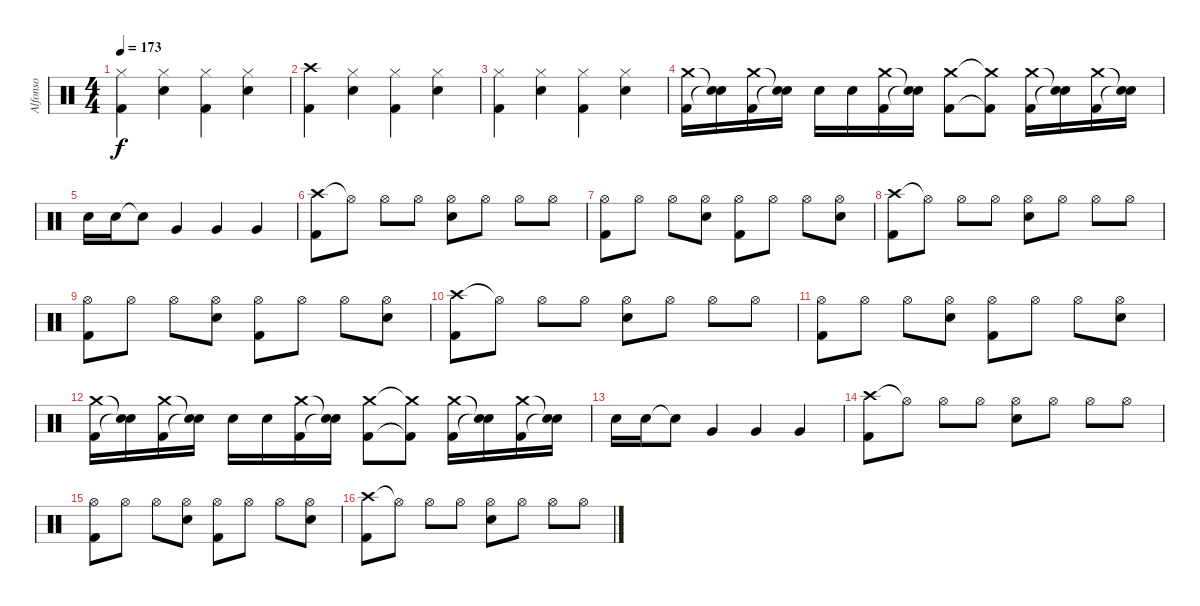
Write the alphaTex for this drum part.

\track ("Alfonso" "Alfonso") {instrument percussion}
\staff {score}
\articulation defaults
\ts (4 4)
\tempo 173
\clef neutral
\ks c
("Kick (hit) 2" "Hi-Hat (closed)").4{dy f} ("Electric Snare (hit)" "Hi-Hat (closed)").4 ("Kick (hit) 2" "Hi-Hat (closed)").4 ("Electric Snare (hit)" "Hi-Hat (closed)").4 |
("Kick (hit) 2" "Crash high (hit)").4 ("Electric Snare (hit)" "Hi-Hat (closed)").4 ("Kick (hit) 2" "Hi-Hat (closed)").4 ("Electric Snare (hit)" "Hi-Hat (closed)").4 |
("Kick (hit) 2" "Hi-Hat (closed)").4 ("Electric Snare (hit)" "Hi-Hat (closed)").4 ("Kick (hit) 2" "Hi-Hat (closed)").4 ("Electric Snare (hit)" "Hi-Hat (closed)").4 |
("Crash medium (hit)" "Kick (hit) 2").16 ("Snare (hit)"{t} "Snare (hit)"{t}).16 ("Crash medium (hit)" "Kick (hit) 2").16 ("Snare (hit)"{t} "Snare (hit)"{t}).16 "Electric Snare (hit)".16 "Electric Snare (hit)".16 ("Crash medium (hit)" "Kick (hit) 2").16 ("Snare (hit)"{t} "Snare (hit)"{t}).16 ("Crash medium (hit)" "Kick (hit) 2").8 ("Crash medium (hit)"{t} "Kick (hit) 2"{t}).8 ("Crash medium (hit)" "Kick (hit) 2").16 ("Snare (hit)"{t} "Snare (hit)"{t}).16 ("Crash medium (hit)" "Kick (hit) 2").16 ("Snare (hit)"{t} "Snare (hit)"{t}).16 |
"Electric Snare (hit)".16 "Electric Snare (hit)".16 "Snare (hit)"{t}.8 "Very Low Tom (hit)".4 "Very Low Tom (hit)".4 "Very Low Tom (hit)".4 |
("Crash high (hit)" "Kick (hit) 2").8 "Hi-Hat (open)"{t}.8 "Hi-Hat (open)".8 "Hi-Hat (open)".8 ("Hi-Hat (open)" "Electric Snare (hit)").8 "Hi-Hat (open)".8 "Hi-Hat (open)".8 "Hi-Hat (open)".8 |
("Hi-Hat (open)" "Kick (hit) 2").8 "Hi-Hat (open)".8 "Hi-Hat (open)".8 ("Hi-Hat (open)" "Electric Snare (hit)").8 ("Hi-Hat (open)" "Kick (hit) 2").8 "Hi-Hat (open)".8 "Hi-Hat (open)".8 ("Hi-Hat (open)" "Electric Snare (hit)").8 |
("Crash high (hit)" "Kick (hit) 2").8 "Hi-Hat (open)"{t}.8 "Hi-Hat (open)".8 "Hi-Hat (open)".8 ("Hi-Hat (open)" "Electric Snare (hit)").8 "Hi-Hat (open)".8 "Hi-Hat (open)".8 "Hi-Hat (open)".8 |
("Hi-Hat (open)" "Kick (hit) 2").8 "Hi-Hat (open)".8 "Hi-Hat (open)".8 ("Hi-Hat (open)" "Electric Snare (hit)").8 ("Hi-Hat (open)" "Kick (hit) 2").8 "Hi-Hat (open)".8 "Hi-Hat (open)".8 ("Hi-Hat (open)" "Electric Snare (hit)").8 |
("Crash high (hit)" "Kick (hit) 2").8 "Hi-Hat (open)"{t}.8 "Hi-Hat (open)".8 "Hi-Hat (open)".8 ("Hi-Hat (open)" "Electric Snare (hit)").8 "Hi-Hat (open)".8 "Hi-Hat (open)".8 "Hi-Hat (open)".8 |
("Hi-Hat (open)" "Kick (hit) 2").8 "Hi-Hat (open)".8 "Hi-Hat (open)".8 ("Hi-Hat (open)" "Electric Snare (hit)").8 ("Hi-Hat (open)" "Kick (hit) 2").8 "Hi-Hat (open)".8 "Hi-Hat (open)".8 ("Hi-Hat (open)" "Electric Snare (hit)").8 |
("Crash medium (hit)" "Kick (hit) 2").16 ("Snare (hit)"{t} "Snare (hit)"{t}).16 ("Crash medium (hit)" "Kick (hit) 2").16 ("Snare (hit)"{t} "Snare (hit)"{t}).16 "Electric Snare (hit)".16 "Electric Snare (hit)".16 ("Crash medium (hit)" "Kick (hit) 2").16 ("Snare (hit)"{t} "Snare (hit)"{t}).16 ("Crash medium (hit)" "Kick (hit) 2").8 ("Crash medium (hit)"{t} "Kick (hit) 2"{t}).8 ("Crash medium (hit)" "Kick (hit) 2").16 ("Snare (hit)"{t} "Snare (hit)"{t}).16 ("Crash medium (hit)" "Kick (hit) 2").16 ("Snare (hit)"{t} "Snare (hit)"{t}).16 |
"Electric Snare (hit)".16 "Electric Snare (hit)".16 "Snare (hit)"{t}.8 "Very Low Tom (hit)".4 "Very Low Tom (hit)".4 "Very Low Tom (hit)".4 |
("Crash high (hit)" "Kick (hit) 2").8 "Hi-Hat (open)"{t}.8 "Hi-Hat (open)".8 "Hi-Hat (open)".8 ("Hi-Hat (open)" "Electric Snare (hit)").8 "Hi-Hat (open)".8 "Hi-Hat (open)".8 "Hi-Hat (open)".8 |
("Hi-Hat (open)" "Kick (hit) 2").8 "Hi-Hat (open)".8 "Hi-Hat (open)".8 ("Hi-Hat (open)" "Electric Snare (hit)").8 ("Hi-Hat (open)" "Kick (hit) 2").8 "Hi-Hat (open)".8 "Hi-Hat (open)".8 ("Hi-Hat (open)" "Electric Snare (hit)").8 |
("Crash high (hit)" "Kick (hit) 2").8 "Hi-Hat (open)"{t}.8 "Hi-Hat (open)".8 "Hi-Hat (open)".8 ("Hi-Hat (open)" "Electric Snare (hit)").8 "Hi-Hat (open)".8 "Hi-Hat (open)".8 "Hi-Hat (open)".8
